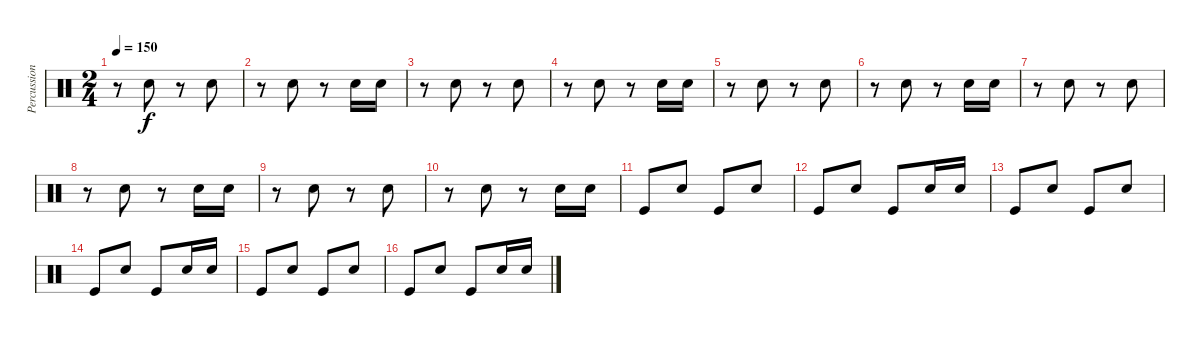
\track ("Percussions" "Percussion") {instrument percussion}
\staff {score}
\articulation defaults
\ts (2 4)
\tempo 150
\clef neutral
\ks c
r.8{dy f} "Electric Snare (hit)".8 r.8 "Electric Snare (hit)".8 |
r.8 "Electric Snare (hit)".8 r.8 "Electric Snare (hit)".16 "Electric Snare (hit)".16 |
r.8 "Electric Snare (hit)".8 r.8 "Electric Snare (hit)".8 |
r.8 "Electric Snare (hit)".8 r.8 "Electric Snare (hit)".16 "Electric Snare (hit)".16 |
r.8 "Electric Snare (hit)".8 r.8 "Electric Snare (hit)".8 |
r.8 "Electric Snare (hit)".8 r.8 "Electric Snare (hit)".16 "Electric Snare (hit)".16 |
r.8 "Electric Snare (hit)".8 r.8 "Electric Snare (hit)".8 |
r.8 "Electric Snare (hit)".8 r.8 "Electric Snare (hit)".16 "Electric Snare (hit)".16 |
r.8 "Electric Snare (hit)".8 r.8 "Electric Snare (hit)".8 |
r.8 "Electric Snare (hit)".8 r.8 "Electric Snare (hit)".16 "Electric Snare (hit)".16 |
"Kick (hit)".8 "Electric Snare (hit)".8 "Kick (hit)".8 "Electric Snare (hit)".8 |
"Kick (hit)".8 "Electric Snare (hit)".8 "Kick (hit)".8 "Electric Snare (hit)".16 "Electric Snare (hit)".16 |
"Kick (hit)".8 "Electric Snare (hit)".8 "Kick (hit)".8 "Electric Snare (hit)".8 |
"Kick (hit)".8 "Electric Snare (hit)".8 "Kick (hit)".8 "Electric Snare (hit)".16 "Electric Snare (hit)".16 |
"Kick (hit)".8 "Electric Snare (hit)".8 "Kick (hit)".8 "Electric Snare (hit)".8 |
"Kick (hit)".8 "Electric Snare (hit)".8 "Kick (hit)".8 "Electric Snare (hit)".16 "Electric Snare (hit)".16
